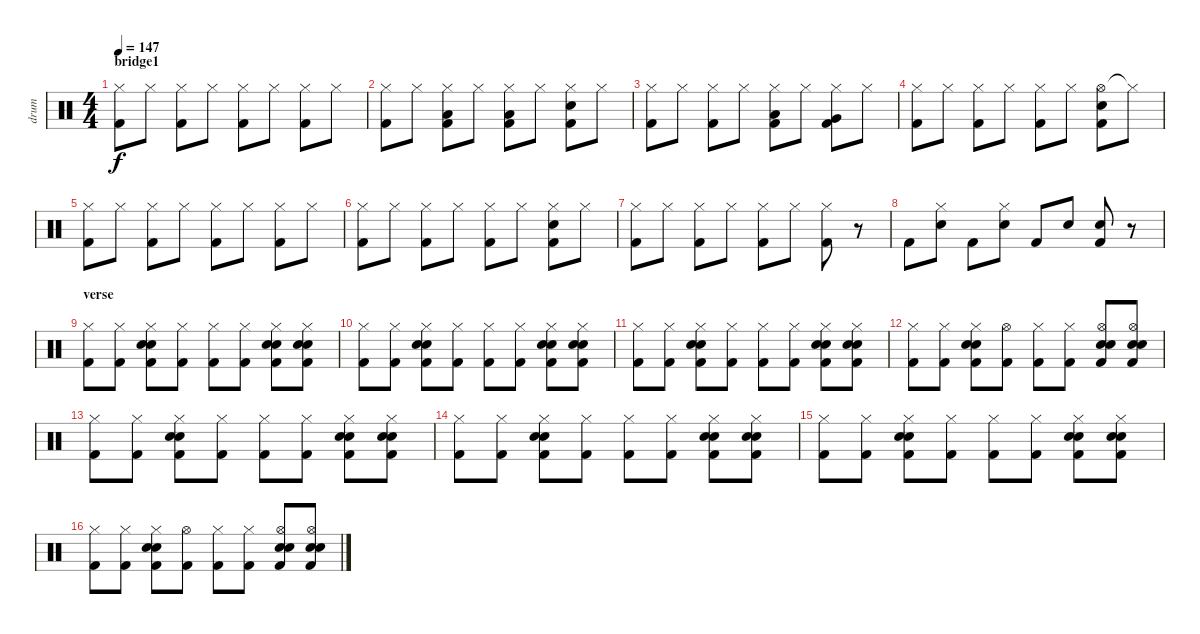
\track ("drum" "drum") {instrument percussion}
\staff {score}
\articulation defaults
\ts (4 4)
\section ("" "bridge1")
\tempo 147
\clef neutral
\ks c
("Hi-Hat (closed)" "Kick (hit) 2").8{dy f} "Hi-Hat (closed)".8 ("Hi-Hat (closed)" "Kick (hit) 2").8 "Hi-Hat (closed)".8 ("Hi-Hat (closed)" "Kick (hit) 2").8 "Hi-Hat (closed)".8 ("Hi-Hat (closed)" "Kick (hit) 2").8 "Hi-Hat (closed)".8 |
("Hi-Hat (closed)" "Kick (hit) 2").8 "Hi-Hat (closed)".8 ("Hi-Hat (closed)" "Low Floor Tom (hit)" "Kick (hit) 2").8 "Hi-Hat (closed)".8 ("Hi-Hat (closed)" "Low Floor Tom (hit)" "Kick (hit) 2").8 "Hi-Hat (closed)".8 ("Hi-Hat (closed)" "Electric Snare (hit)" "Kick (hit) 2").8 "Hi-Hat (closed)".8 |
("Hi-Hat (closed)" "Kick (hit) 2").8 "Hi-Hat (closed)".8 ("Hi-Hat (closed)" "Kick (hit) 2").8 "Hi-Hat (closed)".8 ("Hi-Hat (closed)" "Low Floor Tom (hit)" "Kick (hit) 2").8 "Hi-Hat (closed)".8 ("Hi-Hat (closed)" "Very Low Tom (hit)" "Kick (hit) 2").8 "Hi-Hat (closed)".8 |
("Hi-Hat (closed)" "Kick (hit) 2").8 "Hi-Hat (closed)".8 ("Hi-Hat (closed)" "Kick (hit) 2").8 "Hi-Hat (closed)".8 ("Hi-Hat (closed)" "Kick (hit) 2").8 "Hi-Hat (closed)".8 ("Hi-Hat (open)" "Electric Snare (hit)" "Kick (hit) 2").8 "Hi-Hat (closed)"{t}.8 |
("Hi-Hat (closed)" "Kick (hit) 2").8 "Hi-Hat (closed)".8 ("Hi-Hat (closed)" "Kick (hit) 2").8 "Hi-Hat (closed)".8 ("Hi-Hat (closed)" "Kick (hit) 2").8 "Hi-Hat (closed)".8 ("Hi-Hat (closed)" "Kick (hit) 2").8 "Hi-Hat (closed)".8 |
("Hi-Hat (closed)" "Kick (hit) 2").8 "Hi-Hat (closed)".8 ("Hi-Hat (closed)" "Kick (hit) 2").8 "Hi-Hat (closed)".8 ("Hi-Hat (closed)" "Kick (hit) 2").8 "Hi-Hat (closed)".8 ("Hi-Hat (closed)" "Electric Snare (hit)" "Kick (hit) 2").8 "Hi-Hat (closed)".8 |
("Hi-Hat (closed)" "Kick (hit) 2").8 "Hi-Hat (closed)".8 ("Hi-Hat (closed)" "Kick (hit) 2").8 "Hi-Hat (closed)".8 ("Hi-Hat (closed)" "Kick (hit) 2").8 "Hi-Hat (closed)".8 ("Hi-Hat (closed)" "Kick (hit) 2").8 r.8 |
"Kick (hit) 2".8 ("Hi-Hat (closed)" "Electric Snare (hit)").8 "Kick (hit) 2".8 ("Hi-Hat (closed)" "Electric Snare (hit)").8 "Kick (hit) 2".8 "Electric Snare (hit)".8 ("Hand Clap (hit)" "Kick (hit) 2").8 r.8 |
\section ("" "verse")
("Hi-Hat (closed)" "Kick (hit) 2").8 ("Hi-Hat (closed)" "Kick (hit) 2").8 ("Hi-Hat (closed)" "Hand Clap (hit)" "Electric Snare (hit)" "Kick (hit) 2").8 ("Hi-Hat (closed)" "Kick (hit) 2").8 ("Hi-Hat (closed)" "Kick (hit) 2").8 ("Hi-Hat (closed)" "Kick (hit) 2").8 ("Hi-Hat (closed)" "Hand Clap (hit)" "Electric Snare (hit)" "Kick (hit) 2").8 ("Hi-Hat (closed)" "Hand Clap (hit)" "Electric Snare (hit)" "Kick (hit) 2").8 |
("Hi-Hat (closed)" "Kick (hit) 2").8 ("Hi-Hat (closed)" "Kick (hit) 2").8 ("Hi-Hat (closed)" "Hand Clap (hit)" "Electric Snare (hit)" "Kick (hit) 2").8 ("Hi-Hat (closed)" "Kick (hit) 2").8 ("Hi-Hat (closed)" "Kick (hit) 2").8 ("Hi-Hat (closed)" "Kick (hit) 2").8 ("Hi-Hat (closed)" "Hand Clap (hit)" "Electric Snare (hit)" "Kick (hit) 2").8 ("Hi-Hat (closed)" "Hand Clap (hit)" "Electric Snare (hit)" "Kick (hit) 2").8 |
("Hi-Hat (closed)" "Kick (hit) 2").8 ("Hi-Hat (closed)" "Kick (hit) 2").8 ("Hi-Hat (closed)" "Hand Clap (hit)" "Electric Snare (hit)" "Kick (hit) 2").8 ("Hi-Hat (closed)" "Kick (hit) 2").8 ("Hi-Hat (closed)" "Kick (hit) 2").8 ("Hi-Hat (closed)" "Kick (hit) 2").8 ("Hi-Hat (closed)" "Hand Clap (hit)" "Electric Snare (hit)" "Kick (hit) 2").8 ("Hi-Hat (closed)" "Hand Clap (hit)" "Electric Snare (hit)" "Kick (hit) 2").8 |
("Hi-Hat (closed)" "Kick (hit) 2").8 ("Hi-Hat (closed)" "Kick (hit) 2").8 ("Hi-Hat (closed)" "Hand Clap (hit)" "Electric Snare (hit)" "Kick (hit) 2").8 ("Hi-Hat (open)" "Kick (hit) 2").8 ("Hi-Hat (closed)" "Kick (hit) 2").8 ("Hi-Hat (closed)" "Kick (hit) 2").8 ("Hi-Hat (open)" "Hand Clap (hit)" "Electric Snare (hit)" "Kick (hit) 2").8 ("Hi-Hat (open)" "Hand Clap (hit)" "Electric Snare (hit)" "Kick (hit) 2").8 |
("Hi-Hat (closed)" "Kick (hit) 2").8 ("Hi-Hat (closed)" "Kick (hit) 2").8 ("Hi-Hat (closed)" "Hand Clap (hit)" "Electric Snare (hit)" "Kick (hit) 2").8 ("Hi-Hat (closed)" "Kick (hit) 2").8 ("Hi-Hat (closed)" "Kick (hit) 2").8 ("Hi-Hat (closed)" "Kick (hit) 2").8 ("Hi-Hat (closed)" "Hand Clap (hit)" "Electric Snare (hit)" "Kick (hit) 2").8 ("Hi-Hat (closed)" "Hand Clap (hit)" "Electric Snare (hit)" "Kick (hit) 2").8 |
("Hi-Hat (closed)" "Kick (hit) 2").8 ("Hi-Hat (closed)" "Kick (hit) 2").8 ("Hi-Hat (closed)" "Hand Clap (hit)" "Electric Snare (hit)" "Kick (hit) 2").8 ("Hi-Hat (closed)" "Kick (hit) 2").8 ("Hi-Hat (closed)" "Kick (hit) 2").8 ("Hi-Hat (closed)" "Kick (hit) 2").8 ("Hi-Hat (closed)" "Hand Clap (hit)" "Electric Snare (hit)" "Kick (hit) 2").8 ("Hi-Hat (closed)" "Hand Clap (hit)" "Electric Snare (hit)" "Kick (hit) 2").8 |
("Hi-Hat (closed)" "Kick (hit) 2").8 ("Hi-Hat (closed)" "Kick (hit) 2").8 ("Hi-Hat (closed)" "Hand Clap (hit)" "Electric Snare (hit)" "Kick (hit) 2").8 ("Hi-Hat (closed)" "Kick (hit) 2").8 ("Hi-Hat (closed)" "Kick (hit) 2").8 ("Hi-Hat (closed)" "Kick (hit) 2").8 ("Hi-Hat (closed)" "Hand Clap (hit)" "Electric Snare (hit)" "Kick (hit) 2").8 ("Hi-Hat (closed)" "Hand Clap (hit)" "Electric Snare (hit)" "Kick (hit) 2").8 |
("Hi-Hat (closed)" "Kick (hit) 2").8 ("Hi-Hat (closed)" "Kick (hit) 2").8 ("Hi-Hat (closed)" "Hand Clap (hit)" "Electric Snare (hit)" "Kick (hit) 2").8 ("Hi-Hat (open)" "Kick (hit) 2").8 ("Hi-Hat (closed)" "Kick (hit) 2").8 ("Hi-Hat (closed)" "Kick (hit) 2").8 ("Hi-Hat (open)" "Hand Clap (hit)" "Electric Snare (hit)" "Kick (hit) 2").8 ("Hi-Hat (open)" "Hand Clap (hit)" "Electric Snare (hit)" "Kick (hit) 2").8
